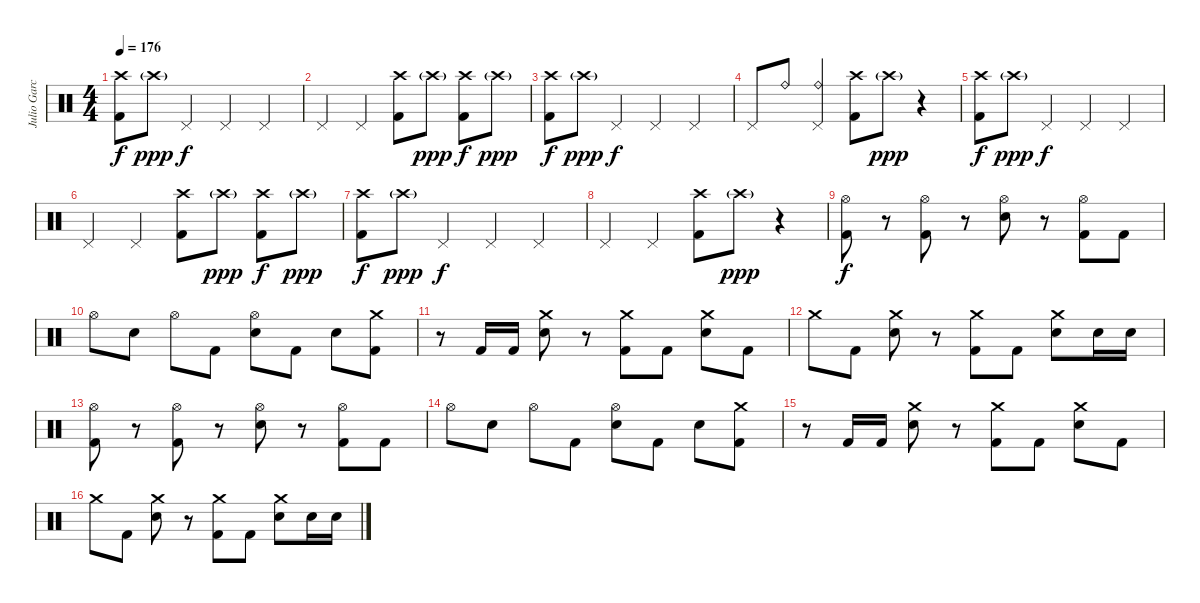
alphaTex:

\track ("Julio Garcia" "Julio Garc") {instrument percussion}
\staff {score}
\articulation defaults
\ts (4 4)
\tempo 176
\clef neutral
\ks c
("Crash high (hit)" "Kick (hit) 2").8{dy f} "Crash high (hit)"{g}.8{dy ppp} "Pedal Hi-Hat (hit)".4{dy f} "Pedal Hi-Hat (hit)".4 "Pedal Hi-Hat (hit)".4 |
"Pedal Hi-Hat (hit)".4 "Pedal Hi-Hat (hit)".4 ("Crash high (hit)" "Kick (hit) 2").8 "Crash high (hit)"{g}.8{dy ppp} ("Crash high (hit)" "Kick (hit) 2").8{dy f} "Crash high (hit)"{g}.8{dy ppp} |
("Crash high (hit)" "Kick (hit) 2").8{dy f} "Crash high (hit)"{g}.8{dy ppp} "Pedal Hi-Hat (hit)".4{dy f} "Pedal Hi-Hat (hit)".4 "Pedal Hi-Hat (hit)".4 |
"Pedal Hi-Hat (hit)".8 "Ride (bell)".8 ("Pedal Hi-Hat (hit)" "Ride (bell)").4 ("Crash high (hit)" "Kick (hit) 2").8 "Crash high (hit)"{g}.8{dy ppp} r.4 |
("Crash high (hit)" "Kick (hit) 2").8{dy f} "Crash high (hit)"{g}.8{dy ppp} "Pedal Hi-Hat (hit)".4{dy f} "Pedal Hi-Hat (hit)".4 "Pedal Hi-Hat (hit)".4 |
"Pedal Hi-Hat (hit)".4 "Pedal Hi-Hat (hit)".4 ("Crash high (hit)" "Kick (hit) 2").8 "Crash high (hit)"{g}.8{dy ppp} ("Crash high (hit)" "Kick (hit) 2").8{dy f} "Crash high (hit)"{g}.8{dy ppp} |
("Crash high (hit)" "Kick (hit) 2").8{dy f} "Crash high (hit)"{g}.8{dy ppp} "Pedal Hi-Hat (hit)".4{dy f} "Pedal Hi-Hat (hit)".4 "Pedal Hi-Hat (hit)".4 |
"Pedal Hi-Hat (hit)".4 "Pedal Hi-Hat (hit)".4 ("Crash high (hit)" "Kick (hit) 2").8 "Crash high (hit)"{g}.8{dy ppp} r.4 |
("Hi-Hat (open)" "Kick (hit) 2").8{dy f} r.8 ("Hi-Hat (open)" "Kick (hit) 2").8 r.8 ("Hi-Hat (open)" "Electric Snare (hit)").8 r.8 ("Hi-Hat (open)" "Kick (hit) 2").8 "Kick (hit) 2".8 |
"Hi-Hat (open)".8 "Electric Snare (hit)".8 "Hi-Hat (open)".8 "Kick (hit) 2".8 ("Hi-Hat (open)" "Electric Snare (hit)").8 "Kick (hit) 2".8 "Electric Snare (hit)".8 ("Crash medium (hit)" "Kick (hit) 2").8 |
r.8 "Kick (hit) 2".16 "Kick (hit) 2".16 ("Crash medium (hit)" "Electric Snare (hit)").8 r.8 ("Crash medium (hit)" "Kick (hit) 2").8 "Kick (hit) 2".8 ("Crash medium (hit)" "Electric Snare (hit)").8 "Kick (hit) 2".8 |
"Crash medium (hit)".8 "Kick (hit) 2".8 ("Crash medium (hit)" "Electric Snare (hit)").8 r.8 ("Crash medium (hit)" "Kick (hit) 2").8 "Kick (hit) 2".8 ("Crash medium (hit)" "Electric Snare (hit)").8 "Electric Snare (hit)".16 "Electric Snare (hit)".16 |
("Hi-Hat (open)" "Kick (hit) 2").8 r.8 ("Hi-Hat (open)" "Kick (hit) 2").8 r.8 ("Hi-Hat (open)" "Electric Snare (hit)").8 r.8 ("Hi-Hat (open)" "Kick (hit) 2").8 "Kick (hit) 2".8 |
"Hi-Hat (open)".8 "Electric Snare (hit)".8 "Hi-Hat (open)".8 "Kick (hit) 2".8 ("Hi-Hat (open)" "Electric Snare (hit)").8 "Kick (hit) 2".8 "Electric Snare (hit)".8 ("Crash medium (hit)" "Kick (hit) 2").8 |
r.8 "Kick (hit) 2".16 "Kick (hit) 2".16 ("Crash medium (hit)" "Electric Snare (hit)").8 r.8 ("Crash medium (hit)" "Kick (hit) 2").8 "Kick (hit) 2".8 ("Crash medium (hit)" "Electric Snare (hit)").8 "Kick (hit) 2".8 |
"Crash medium (hit)".8 "Kick (hit) 2".8 ("Crash medium (hit)" "Electric Snare (hit)").8 r.8 ("Crash medium (hit)" "Kick (hit) 2").8 "Kick (hit) 2".8 ("Crash medium (hit)" "Electric Snare (hit)").8 "Electric Snare (hit)".16 "Electric Snare (hit)".16
